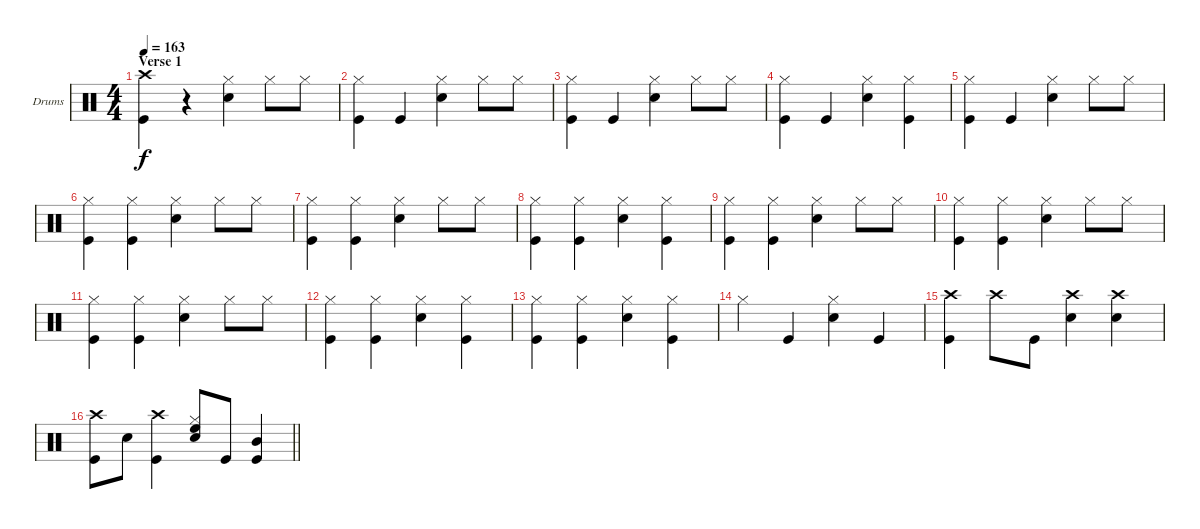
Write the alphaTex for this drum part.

\bracketExtendMode groupsimilarinstruments
\firstSystemTrackNameOrientation horizontal
\otherSystemsTrackNameOrientation horizontal
\track ("Drumkit" "Drums") {instrument percussion}
\staff {score}
\articulation defaults
\ts (4 4)
\section ("" "Verse 1")
\tempo 163
\clef neutral
\scale
0.333333
\ks c
("Crash high (hit)" "Kick (hit)").4{dy f} r.4 ("Snare (hit) 2" "Hi-Hat (closed)").4 "Hi-Hat (closed)".8 "Hi-Hat (closed)".8 |
\scale
0.333333 ("Kick (hit)" "Hi-Hat (closed)").4 "Kick (hit)".4 ("Snare (hit) 2" "Hi-Hat (closed)").4 "Hi-Hat (closed)".8 "Hi-Hat (closed)".8 |
\scale
0.333333 ("Kick (hit)" "Hi-Hat (closed)").4 "Kick (hit)".4 ("Snare (hit) 2" "Hi-Hat (closed)").4 "Hi-Hat (closed)".8 "Hi-Hat (closed)".8 |
\scale
0.333333 ("Kick (hit)" "Hi-Hat (closed)").4 "Kick (hit)".4 ("Snare (hit) 2" "Hi-Hat (closed)").4 ("Kick (hit)" "Hi-Hat (closed)").4 |
\scale
0.333333 ("Kick (hit)" "Hi-Hat (closed)").4 "Kick (hit)".4 ("Snare (hit) 2" "Hi-Hat (closed)").4 "Hi-Hat (closed)".8 "Hi-Hat (closed)".8 |
\scale
0.333333 ("Kick (hit)" "Hi-Hat (closed)").4 ("Kick (hit)" "Hi-Hat (closed)").4 ("Snare (hit) 2" "Hi-Hat (closed)").4 "Hi-Hat (closed)".8 "Hi-Hat (closed)".8 |
\scale
0.333333 ("Kick (hit)" "Hi-Hat (closed)").4 ("Kick (hit)" "Hi-Hat (closed)").4 ("Snare (hit) 2" "Hi-Hat (closed)").4 "Hi-Hat (closed)".8 "Hi-Hat (closed)".8 |
\scale
0.333333 ("Kick (hit)" "Hi-Hat (closed)").4 ("Kick (hit)" "Hi-Hat (closed)").4 ("Snare (hit) 2" "Hi-Hat (closed)").4 ("Kick (hit)" "Hi-Hat (closed)").4 |
\scale
0.333333 ("Kick (hit)" "Hi-Hat (closed)").4 ("Kick (hit)" "Hi-Hat (closed)").4 ("Snare (hit) 2" "Hi-Hat (closed)").4 "Hi-Hat (closed)".8 "Hi-Hat (closed)".8 |
\scale
0.333333 ("Kick (hit)" "Hi-Hat (closed)").4 ("Kick (hit)" "Hi-Hat (closed)").4 ("Snare (hit) 2" "Hi-Hat (closed)").4 "Hi-Hat (closed)".8 "Hi-Hat (closed)".8 |
\scale
0.333333 ("Kick (hit)" "Hi-Hat (closed)").4 ("Kick (hit)" "Hi-Hat (closed)").4 ("Snare (hit) 2" "Hi-Hat (closed)").4 "Hi-Hat (closed)".8 "Hi-Hat (closed)".8 |
\scale
0.333333 ("Kick (hit)" "Hi-Hat (closed)").4 ("Kick (hit)" "Hi-Hat (closed)").4 ("Snare (hit) 2" "Hi-Hat (closed)").4 ("Kick (hit)" "Hi-Hat (closed)").4 |
\scale
0.333333 ("Kick (hit)" "Hi-Hat (closed)").4 ("Kick (hit)" "Hi-Hat (closed)").4 ("Snare (hit) 2" "Hi-Hat (closed)").4 ("Kick (hit)" "Hi-Hat (closed)").4 |
\scale
0.333333 "Hi-Hat (closed)".4 "Kick (hit)".4 ("Snare (hit) 2" "Hi-Hat (closed)").4 "Kick (hit)".4 |
\scale
0.333333 ("Crash high (hit)" "Kick (hit)").4 "Crash high (hit)".8 "Kick (hit)".8 ("Crash high (hit)" "Snare (hit) 2").4 ("Crash high (hit)" "Snare (hit) 2").4 |
\scale
0.333333
\barLineRight lightlight
("Crash high (hit)" "Kick (hit)").8 "Snare (hit) 2".8 ("Crash high (hit)" "Kick (hit)").4 ("Hi-Hat (closed)" "Snare (hit) 2" "High Floor Tom (hit)").8 "Kick (hit)".8 ("Kick (hit)" "Mid Tom (hit)").4
